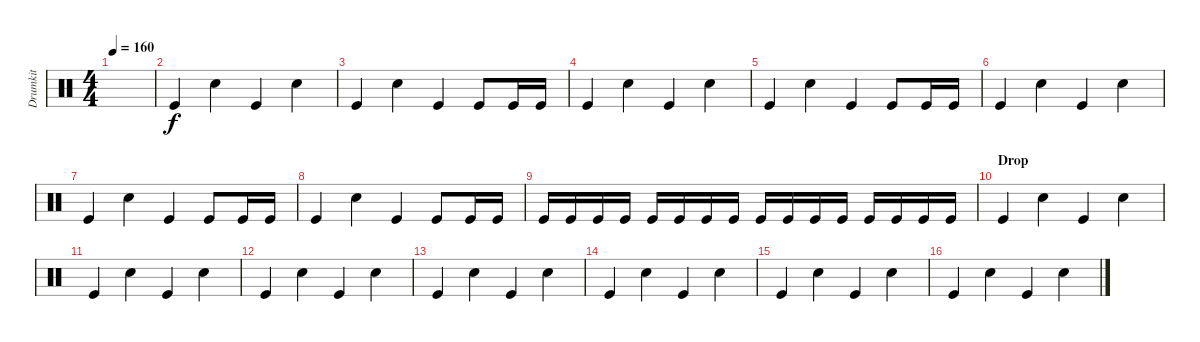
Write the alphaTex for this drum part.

\track ("Drumkit" "Drumkit") {instrument percussion}
\staff {score}
\articulation defaults
\ts (4 4)
\tempo 160
\clef neutral
\ks c
|
"Kick (hit)".4 "Hand Clap (hit)".4 "Kick (hit)".4 "Hand Clap (hit)".4 |
"Kick (hit)".4 "Hand Clap (hit)".4 "Kick (hit)".4 "Kick (hit)".8 "Kick (hit)".16 "Kick (hit)".16 |
"Kick (hit)".4 "Hand Clap (hit)".4 "Kick (hit)".4 "Hand Clap (hit)".4 |
"Kick (hit)".4 "Hand Clap (hit)".4 "Kick (hit)".4 "Kick (hit)".8 "Kick (hit)".16 "Kick (hit)".16 |
"Kick (hit)".4 "Hand Clap (hit)".4 "Kick (hit)".4 "Hand Clap (hit)".4 |
"Kick (hit)".4 "Hand Clap (hit)".4 "Kick (hit)".4 "Kick (hit)".8 "Kick (hit)".16 "Kick (hit)".16 |
"Kick (hit)".4 "Hand Clap (hit)".4 "Kick (hit)".4 "Kick (hit)".8 "Kick (hit)".16 "Kick (hit)".16 |
"Kick (hit)".16 "Kick (hit)".16 "Kick (hit)".16 "Kick (hit)".16 "Kick (hit)".16 "Kick (hit)".16 "Kick (hit)".16 "Kick (hit)".16 "Kick (hit)".16 "Kick (hit)".16 "Kick (hit)".16 "Kick (hit)".16 "Kick (hit)".16 "Kick (hit)".16 "Kick (hit)".16 "Kick (hit)".16 |
\section ("" "Drop")
"Kick (hit)".4 "Hand Clap (hit)".4 "Kick (hit)".4 "Hand Clap (hit)".4 |
"Kick (hit)".4 "Hand Clap (hit)".4 "Kick (hit)".4 "Hand Clap (hit)".4 |
"Kick (hit)".4 "Hand Clap (hit)".4 "Kick (hit)".4 "Hand Clap (hit)".4 |
"Kick (hit)".4 "Hand Clap (hit)".4 "Kick (hit)".4 "Hand Clap (hit)".4 |
"Kick (hit)".4 "Hand Clap (hit)".4 "Kick (hit)".4 "Hand Clap (hit)".4 |
"Kick (hit)".4 "Hand Clap (hit)".4 "Kick (hit)".4 "Hand Clap (hit)".4 |
"Kick (hit)".4 "Hand Clap (hit)".4 "Kick (hit)".4 "Hand Clap (hit)".4
